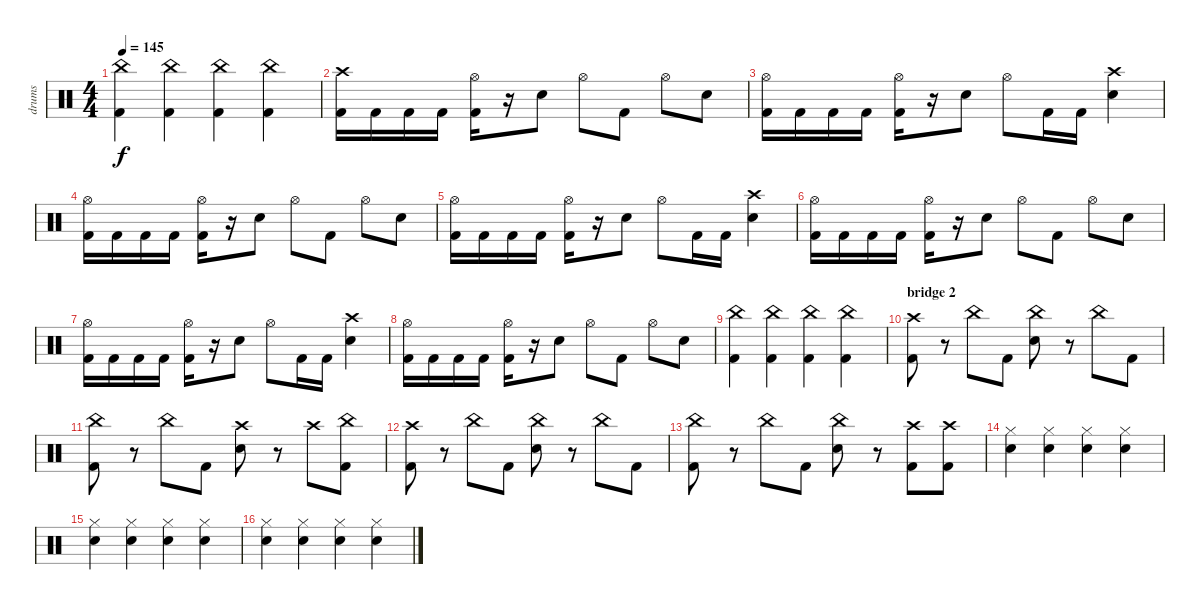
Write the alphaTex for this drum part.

\track ("drums" "drums") {instrument percussion}
\staff {score}
\articulation defaults
\ts (4 4)
\tempo 145
\clef neutral
\ks c
("Kick (hit) 2" "China (hit)").4{dy f} ("Kick (hit) 2" "China (hit)").4 ("Kick (hit) 2" "China (hit)").4 ("Kick (hit) 2" "China (hit)").4 |
("Kick (hit) 2" "Crash high (hit)").16 "Kick (hit) 2".16 "Kick (hit) 2".16 "Kick (hit) 2".16 ("Kick (hit) 2" "Hi-Hat (open)").16 r.16 "Snare (hit) 2".8 "Hi-Hat (open)".8 "Kick (hit) 2".8 "Hi-Hat (open)".8 "Snare (hit) 2".8 |
("Kick (hit) 2" "Hi-Hat (open)").16 "Kick (hit) 2".16 "Kick (hit) 2".16 "Kick (hit) 2".16 ("Kick (hit) 2" "Hi-Hat (open)").16 r.16 "Snare (hit) 2".8 "Hi-Hat (open)".8 "Kick (hit) 2".16 "Kick (hit) 2".16 ("Snare (hit) 2" "Crash high (hit)").4 |
("Kick (hit) 2" "Hi-Hat (open)").16 "Kick (hit) 2".16 "Kick (hit) 2".16 "Kick (hit) 2".16 ("Kick (hit) 2" "Hi-Hat (open)").16 r.16 "Snare (hit) 2".8 "Hi-Hat (open)".8 "Kick (hit) 2".8 "Hi-Hat (open)".8 "Snare (hit) 2".8 |
("Kick (hit) 2" "Hi-Hat (open)").16 "Kick (hit) 2".16 "Kick (hit) 2".16 "Kick (hit) 2".16 ("Kick (hit) 2" "Hi-Hat (open)").16 r.16 "Snare (hit) 2".8 "Hi-Hat (open)".8 "Kick (hit) 2".16 "Kick (hit) 2".16 ("Snare (hit) 2" "Crash high (hit)").4 |
("Kick (hit) 2" "Hi-Hat (open)").16 "Kick (hit) 2".16 "Kick (hit) 2".16 "Kick (hit) 2".16 ("Kick (hit) 2" "Hi-Hat (open)").16 r.16 "Snare (hit) 2".8 "Hi-Hat (open)".8 "Kick (hit) 2".8 "Hi-Hat (open)".8 "Snare (hit) 2".8 |
("Kick (hit) 2" "Hi-Hat (open)").16 "Kick (hit) 2".16 "Kick (hit) 2".16 "Kick (hit) 2".16 ("Kick (hit) 2" "Hi-Hat (open)").16 r.16 "Snare (hit) 2".8 "Hi-Hat (open)".8 "Kick (hit) 2".16 "Kick (hit) 2".16 ("Snare (hit) 2" "Crash high (hit)").4 |
("Kick (hit) 2" "Hi-Hat (open)").16 "Kick (hit) 2".16 "Kick (hit) 2".16 "Kick (hit) 2".16 ("Kick (hit) 2" "Hi-Hat (open)").16 r.16 "Snare (hit) 2".8 "Hi-Hat (open)".8 "Kick (hit) 2".8 "Hi-Hat (open)".8 "Snare (hit) 2".8 |
("Kick (hit) 2" "China (hit)").4 ("Kick (hit) 2" "China (hit)").4 ("Kick (hit) 2" "China (hit)").4 ("Kick (hit) 2" "China (hit)").4 |
\section ("" "bridge 2")
("Kick (hit) 2" "Crash high (hit)").8 r.8 "China (hit)".8 "Kick (hit) 2".8 ("Snare (hit) 2" "China (hit)").8 r.8 "China (hit)".8 "Kick (hit) 2".8 |
("Kick (hit) 2" "China (hit)").8 r.8 "China (hit)".8 "Kick (hit) 2".8 ("Snare (hit) 2" "Crash high (hit)").8 r.8 "Crash high (hit)".8 ("Kick (hit) 2" "China (hit)").8 |
("Kick (hit) 2" "Crash high (hit)").8 r.8 "China (hit)".8 "Kick (hit) 2".8 ("Snare (hit) 2" "China (hit)").8 r.8 "China (hit)".8 "Kick (hit) 2".8 |
("Kick (hit) 2" "China (hit)").8 r.8 "China (hit)".8 "Kick (hit) 2".8 ("Snare (hit) 2" "China (hit)").8 r.8 ("Kick (hit) 2" "Crash high (hit)").8 ("Kick (hit) 2" "Crash high (hit)").8 |
("Snare (hit) 2" "Hi-Hat (closed)").4 ("Snare (hit) 2" "Hi-Hat (closed)").4 ("Snare (hit) 2" "Hi-Hat (closed)").4 ("Snare (hit) 2" "Hi-Hat (closed)").4 |
("Snare (hit) 2" "Hi-Hat (closed)").4 ("Snare (hit) 2" "Hi-Hat (closed)").4 ("Snare (hit) 2" "Hi-Hat (closed)").4 ("Snare (hit) 2" "Hi-Hat (closed)").4 |
("Snare (hit) 2" "Hi-Hat (closed)").4 ("Snare (hit) 2" "Hi-Hat (closed)").4 ("Snare (hit) 2" "Hi-Hat (closed)").4 ("Snare (hit) 2" "Hi-Hat (closed)").4
